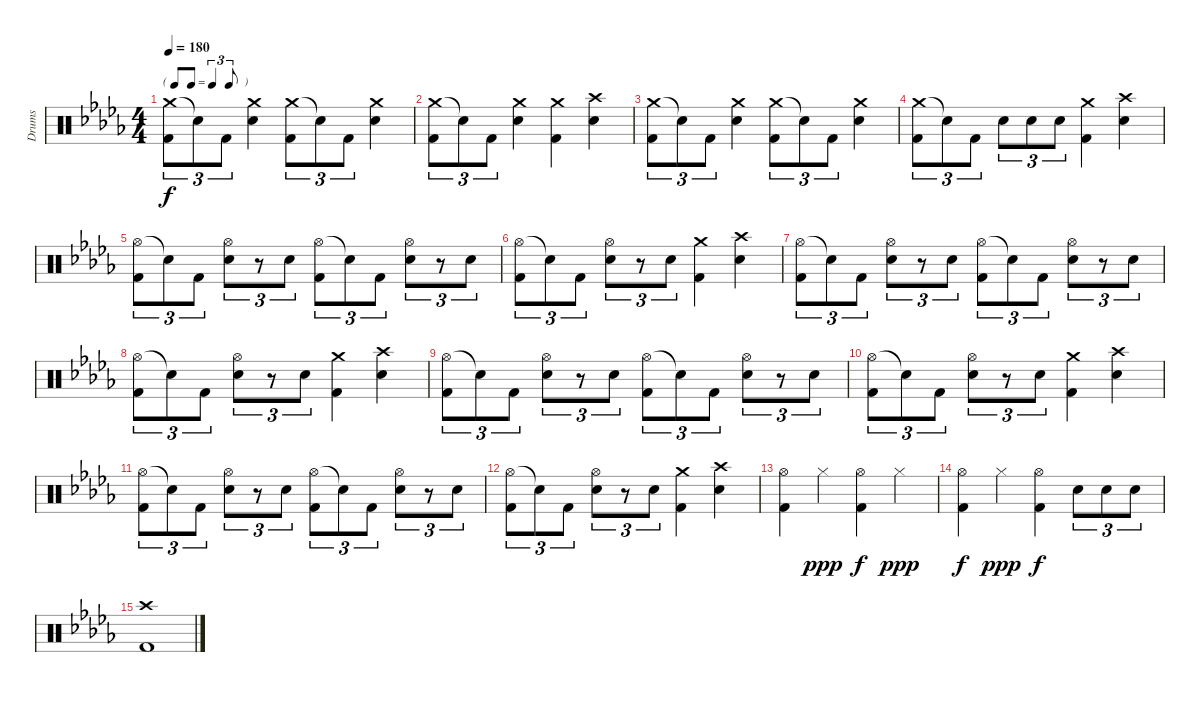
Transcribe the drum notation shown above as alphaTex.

\track ("Drums" "Drums") {instrument percussion}
\staff {score}
\articulation defaults
\ts (4 4)
\tf triplet8th
\tempo 180
\clef neutral
\ks db
("Crash medium (hit)" "Kick (hit) 2").8{tu (3 2) dy f} "Snare (hit)"{t}.8{tu (3 2)} "Kick (hit) 2".8{tu (3 2)} ("Crash medium (hit)" "Snare (hit) 2").4 ("Crash medium (hit)" "Kick (hit) 2").8{tu (3 2)} "Snare (hit)"{t}.8{tu (3 2)} "Kick (hit) 2".8{tu (3 2)} ("Crash medium (hit)" "Snare (hit) 2").4 |
("Crash medium (hit)" "Kick (hit) 2").8{tu (3 2)} "Snare (hit)"{t}.8{tu (3 2)} "Kick (hit) 2".8{tu (3 2)} ("Crash medium (hit)" "Snare (hit) 2").4 ("Crash medium (hit)" "Kick (hit) 2").4 ("Crash high (hit)" "Snare (hit) 2").4 |
("Crash medium (hit)" "Kick (hit) 2").8{tu (3 2)} "Snare (hit)"{t}.8{tu (3 2)} "Kick (hit) 2".8{tu (3 2)} ("Crash medium (hit)" "Snare (hit) 2").4 ("Crash medium (hit)" "Kick (hit) 2").8{tu (3 2)} "Snare (hit)"{t}.8{tu (3 2)} "Kick (hit) 2".8{tu (3 2)} ("Crash medium (hit)" "Snare (hit) 2").4 |
("Crash medium (hit)" "Kick (hit) 2").8{tu (3 2)} "Snare (hit)"{t}.8{tu (3 2)} "Kick (hit) 2".8{tu (3 2)} "Snare (hit) 2".8{tu (3 2)} "Snare (hit) 2".8{tu (3 2)} "Snare (hit) 2".8{tu (3 2)} ("Crash medium (hit)" "Kick (hit) 2").4 ("Crash high (hit)" "Snare (hit) 2").4 |
("Hi-Hat (open)" "Kick (hit) 2").8{tu (3 2)} "Snare (hit)"{t}.8{tu (3 2)} "Kick (hit) 2".8{tu (3 2)} ("Hi-Hat (open)" "Snare (hit) 2").8{tu (3 2)} r.8{tu (3 2)} "Snare (hit) 2".8{tu (3 2)} ("Hi-Hat (open)" "Kick (hit) 2").8{tu (3 2)} "Snare (hit)"{t}.8{tu (3 2)} "Kick (hit) 2".8{tu (3 2)} ("Hi-Hat (open)" "Snare (hit) 2").8{tu (3 2)} r.8{tu (3 2)} "Snare (hit) 2".8{tu (3 2)} |
("Hi-Hat (open)" "Kick (hit) 2").8{tu (3 2)} "Snare (hit)"{t}.8{tu (3 2)} "Kick (hit) 2".8{tu (3 2)} ("Hi-Hat (open)" "Snare (hit) 2").8{tu (3 2)} r.8{tu (3 2)} "Snare (hit) 2".8{tu (3 2)} ("Crash medium (hit)" "Kick (hit) 2").4 ("Crash high (hit)" "Snare (hit) 2").4 |
("Hi-Hat (open)" "Kick (hit) 2").8{tu (3 2)} "Snare (hit)"{t}.8{tu (3 2)} "Kick (hit) 2".8{tu (3 2)} ("Hi-Hat (open)" "Snare (hit) 2").8{tu (3 2)} r.8{tu (3 2)} "Snare (hit) 2".8{tu (3 2)} ("Hi-Hat (open)" "Kick (hit) 2").8{tu (3 2)} "Snare (hit)"{t}.8{tu (3 2)} "Kick (hit) 2".8{tu (3 2)} ("Hi-Hat (open)" "Snare (hit) 2").8{tu (3 2)} r.8{tu (3 2)} "Snare (hit) 2".8{tu (3 2)} |
("Hi-Hat (open)" "Kick (hit) 2").8{tu (3 2)} "Snare (hit)"{t}.8{tu (3 2)} "Kick (hit) 2".8{tu (3 2)} ("Hi-Hat (open)" "Snare (hit) 2").8{tu (3 2)} r.8{tu (3 2)} "Snare (hit) 2".8{tu (3 2)} ("Crash medium (hit)" "Kick (hit) 2").4 ("Crash high (hit)" "Snare (hit) 2").4 |
("Hi-Hat (open)" "Kick (hit) 2").8{tu (3 2)} "Snare (hit)"{t}.8{tu (3 2)} "Kick (hit) 2".8{tu (3 2)} ("Hi-Hat (open)" "Snare (hit) 2").8{tu (3 2)} r.8{tu (3 2)} "Snare (hit) 2".8{tu (3 2)} ("Hi-Hat (open)" "Kick (hit) 2").8{tu (3 2)} "Snare (hit)"{t}.8{tu (3 2)} "Kick (hit) 2".8{tu (3 2)} ("Hi-Hat (open)" "Snare (hit) 2").8{tu (3 2)} r.8{tu (3 2)} "Snare (hit) 2".8{tu (3 2)} |
("Hi-Hat (open)" "Kick (hit) 2").8{tu (3 2)} "Snare (hit)"{t}.8{tu (3 2)} "Kick (hit) 2".8{tu (3 2)} ("Hi-Hat (open)" "Snare (hit) 2").8{tu (3 2)} r.8{tu (3 2)} "Snare (hit) 2".8{tu (3 2)} ("Crash medium (hit)" "Kick (hit) 2").4 ("Crash high (hit)" "Snare (hit) 2").4 |
("Hi-Hat (open)" "Kick (hit) 2").8{tu (3 2)} "Snare (hit)"{t}.8{tu (3 2)} "Kick (hit) 2".8{tu (3 2)} ("Hi-Hat (open)" "Snare (hit) 2").8{tu (3 2)} r.8{tu (3 2)} "Snare (hit) 2".8{tu (3 2)} ("Hi-Hat (open)" "Kick (hit) 2").8{tu (3 2)} "Snare (hit)"{t}.8{tu (3 2)} "Kick (hit) 2".8{tu (3 2)} ("Hi-Hat (open)" "Snare (hit) 2").8{tu (3 2)} r.8{tu (3 2)} "Snare (hit) 2".8{tu (3 2)} |
("Hi-Hat (open)" "Kick (hit) 2").8{tu (3 2)} "Snare (hit)"{t}.8{tu (3 2)} "Kick (hit) 2".8{tu (3 2)} ("Hi-Hat (open)" "Snare (hit) 2").8{tu (3 2)} r.8{tu (3 2)} "Snare (hit) 2".8{tu (3 2)} ("Crash medium (hit)" "Kick (hit) 2").4 ("Crash high (hit)" "Snare (hit) 2").4 |
("Hi-Hat (open)" "Kick (hit) 2").4 "Hi-Hat (closed)".4{dy ppp} ("Hi-Hat (open)" "Kick (hit) 2").4{dy f} "Hi-Hat (closed)".4{dy ppp} |
("Hi-Hat (open)" "Kick (hit) 2").4{dy f} "Hi-Hat (closed)".4{dy ppp} ("Hi-Hat (open)" "Kick (hit) 2").4{dy f} "Snare (hit) 2".8{tu (3 2)} "Snare (hit) 2".8{tu (3 2)} "Snare (hit) 2".8{tu (3 2)} |
("Crash high (hit)" "Kick (hit) 2").1
